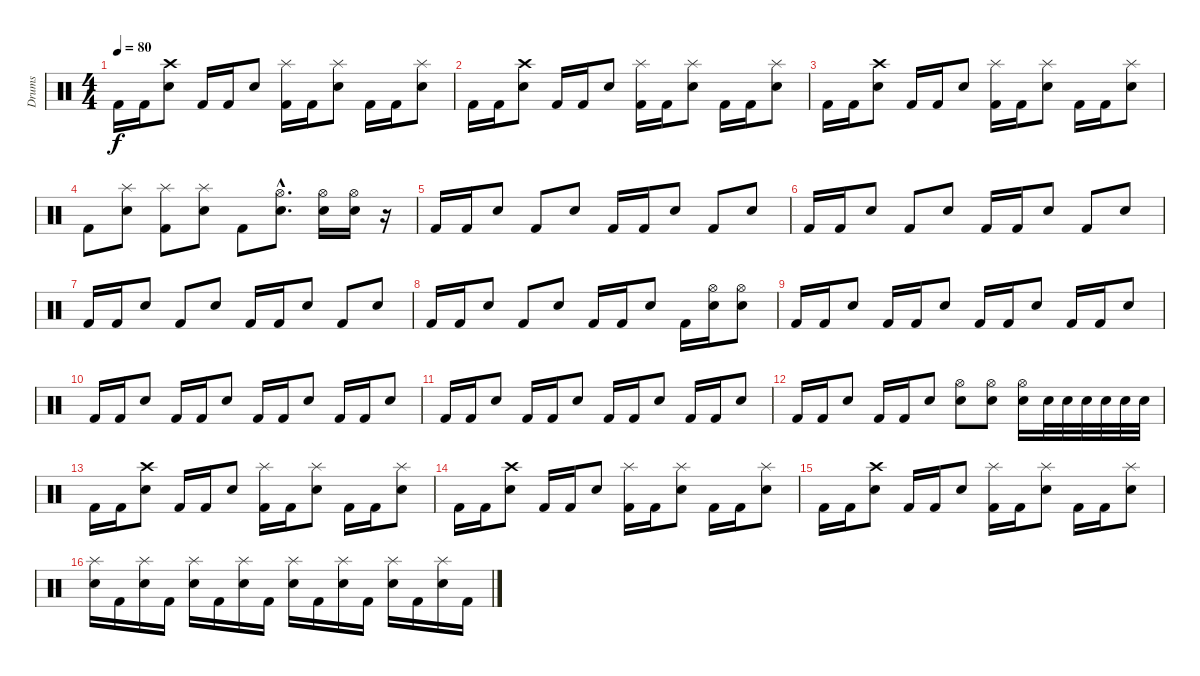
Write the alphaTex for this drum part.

\track ("Drums" "Drums") {instrument percussion}
\staff {score}
\articulation defaults
\ts (4 4)
\tempo 80
\clef neutral
\ks c "Kick (hit) 2".16{dy f} "Kick (hit) 2".16
("Electric Snare (hit)" "Crash high (hit)").8 "Kick (hit) 2".16 "Kick (hit) 2".16 "Electric Snare (hit)".8 ("Kick (hit) 2" "Splash (hit)").16 "Kick (hit) 2".16 ("Electric Snare (hit)" "Splash (hit)").8 "Kick (hit) 2".16 "Kick (hit) 2".16 ("Electric Snare (hit)" "Splash (hit)").8 |
"Kick (hit) 2".16 "Kick (hit) 2".16 ("Electric Snare (hit)" "Crash high (hit)").8 "Kick (hit) 2".16 "Kick (hit) 2".16 "Electric Snare (hit)".8 ("Kick (hit) 2" "Splash (hit)").16 "Kick (hit) 2".16 ("Electric Snare (hit)" "Splash (hit)").8 "Kick (hit) 2".16 "Kick (hit) 2".16 ("Electric Snare (hit)" "Splash (hit)").8 |
"Kick (hit) 2".16 "Kick (hit) 2".16 ("Electric Snare (hit)" "Crash high (hit)").8 "Kick (hit) 2".16 "Kick (hit) 2".16 "Electric Snare (hit)".8 ("Kick (hit) 2" "Splash (hit)").16 "Kick (hit) 2".16 ("Electric Snare (hit)" "Splash (hit)").8 "Kick (hit) 2".16 "Kick (hit) 2".16 ("Electric Snare (hit)" "Splash (hit)").8 |
"Kick (hit) 2".8 ("Electric Snare (hit)" "Splash (hit)").8 ("Kick (hit) 2" "Splash (hit)").8 ("Electric Snare (hit)" "Splash (hit)").8 "Kick (hit) 2".8 ("Electric Snare (hit)"{hac} "Hi-Hat (open)"{hac}).8{d} ("Electric Snare (hit)" "Hi-Hat (open)").16 ("Electric Snare (hit)" "Hi-Hat (open)").16 r.16 |
"Kick (hit) 2".16 "Kick (hit) 2".16 "Electric Snare (hit)".8 "Kick (hit) 2".8 "Electric Snare (hit)".8 "Kick (hit) 2".16 "Kick (hit) 2".16 "Electric Snare (hit)".8 "Kick (hit) 2".8 "Electric Snare (hit)".8 |
"Kick (hit) 2".16 "Kick (hit) 2".16 "Electric Snare (hit)".8 "Kick (hit) 2".8 "Electric Snare (hit)".8 "Kick (hit) 2".16 "Kick (hit) 2".16 "Electric Snare (hit)".8 "Kick (hit) 2".8 "Electric Snare (hit)".8 |
"Kick (hit) 2".16 "Kick (hit) 2".16 "Electric Snare (hit)".8 "Kick (hit) 2".8 "Electric Snare (hit)".8 "Kick (hit) 2".16 "Kick (hit) 2".16 "Electric Snare (hit)".8 "Kick (hit) 2".8 "Electric Snare (hit)".8 |
"Kick (hit) 2".16 "Kick (hit) 2".16 "Electric Snare (hit)".8 "Kick (hit) 2".8 "Electric Snare (hit)".8 "Kick (hit) 2".16 "Kick (hit) 2".16 "Electric Snare (hit)".8 "Kick (hit) 2".16 ("Electric Snare (hit)" "Hi-Hat (open)").16 ("Electric Snare (hit)" "Hi-Hat (open)").8 |
"Kick (hit) 2".16 "Kick (hit) 2".16 "Electric Snare (hit)".8 "Kick (hit) 2".16 "Kick (hit) 2".16 "Electric Snare (hit)".8 "Kick (hit) 2".16 "Kick (hit) 2".16 "Electric Snare (hit)".8 "Kick (hit) 2".16 "Kick (hit) 2".16 "Electric Snare (hit)".8 |
"Kick (hit) 2".16 "Kick (hit) 2".16 "Electric Snare (hit)".8 "Kick (hit) 2".16 "Kick (hit) 2".16 "Electric Snare (hit)".8 "Kick (hit) 2".16 "Kick (hit) 2".16 "Electric Snare (hit)".8 "Kick (hit) 2".16 "Kick (hit) 2".16 "Electric Snare (hit)".8 |
"Kick (hit) 2".16 "Kick (hit) 2".16 "Electric Snare (hit)".8 "Kick (hit) 2".16 "Kick (hit) 2".16 "Electric Snare (hit)".8 "Kick (hit) 2".16 "Kick (hit) 2".16 "Electric Snare (hit)".8 "Kick (hit) 2".16 "Kick (hit) 2".16 "Electric Snare (hit)".8 |
"Kick (hit) 2".16 "Kick (hit) 2".16 "Electric Snare (hit)".8 "Kick (hit) 2".16 "Kick (hit) 2".16 "Electric Snare (hit)".8 ("Electric Snare (hit)" "Hi-Hat (open)").8 ("Electric Snare (hit)" "Hi-Hat (open)").8 ("Electric Snare (hit)" "Hi-Hat (open)").16 "Electric Snare (hit)".32 "Electric Snare (hit)".32 "Electric Snare (hit)".32 "Electric Snare (hit)".32 "Electric Snare (hit)".32 "Electric Snare (hit)".32 |
"Kick (hit) 2".16 "Kick (hit) 2".16 ("Electric Snare (hit)" "Crash high (hit)").8 "Kick (hit) 2".16 "Kick (hit) 2".16 "Electric Snare (hit)".8 ("Kick (hit) 2" "Splash (hit)").16 "Kick (hit) 2".16 ("Electric Snare (hit)" "Splash (hit)").8 "Kick (hit) 2".16 "Kick (hit) 2".16 ("Electric Snare (hit)" "Splash (hit)").8 |
"Kick (hit) 2".16 "Kick (hit) 2".16 ("Electric Snare (hit)" "Crash high (hit)").8 "Kick (hit) 2".16 "Kick (hit) 2".16 "Electric Snare (hit)".8 ("Kick (hit) 2" "Splash (hit)").16 "Kick (hit) 2".16 ("Electric Snare (hit)" "Splash (hit)").8 "Kick (hit) 2".16 "Kick (hit) 2".16 ("Electric Snare (hit)" "Splash (hit)").8 |
"Kick (hit) 2".16 "Kick (hit) 2".16 ("Electric Snare (hit)" "Crash high (hit)").8 "Kick (hit) 2".16 "Kick (hit) 2".16 "Electric Snare (hit)".8 ("Kick (hit) 2" "Splash (hit)").16 "Kick (hit) 2".16 ("Electric Snare (hit)" "Splash (hit)").8 "Kick (hit) 2".16 "Kick (hit) 2".16 ("Electric Snare (hit)" "Splash (hit)").8 |
("Electric Snare (hit)" "Splash (hit)").16 "Kick (hit) 2".16 ("Electric Snare (hit)" "Splash (hit)").16 "Kick (hit) 2".16 ("Electric Snare (hit)" "Splash (hit)").16 "Kick (hit) 2".16 ("Electric Snare (hit)" "Splash (hit)").16 "Kick (hit) 2".16 ("Electric Snare (hit)" "Splash (hit)").16 "Kick (hit) 2".16 ("Electric Snare (hit)" "Splash (hit)").16 "Kick (hit) 2".16 ("Electric Snare (hit)" "Splash (hit)").16 "Kick (hit) 2".16 ("Electric Snare (hit)" "Splash (hit)").16 "Kick (hit) 2".16
